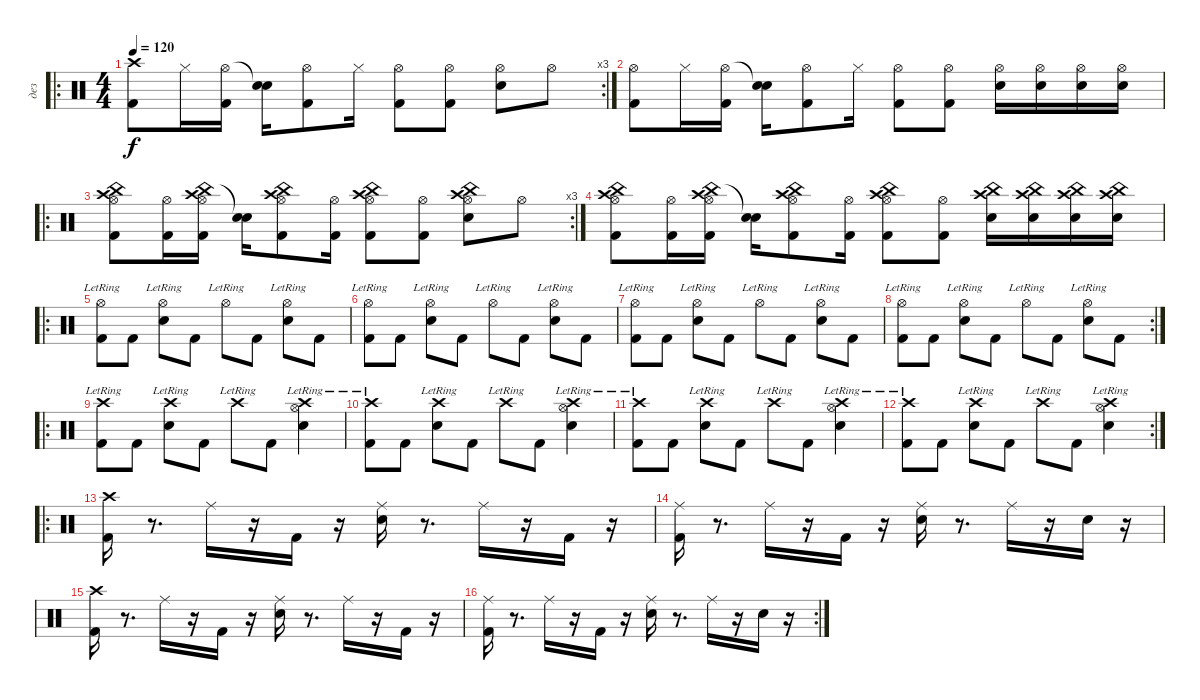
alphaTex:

\track ("дез" "дез") {instrument percussion}
\staff {score}
\articulation defaults
\ro
\rc 3
\ts (4 4)
\tempo 120
\clef neutral
\ks c
("Crash high (hit)" "Kick (hit) 2").8{dy f} "Hi-Hat (closed)".16 ("Hi-Hat (open)" "Kick (hit) 2").16 ("Snare (hit)"{t} "Snare (hit) 2").16 ("Hi-Hat (open)" "Kick (hit) 2").8 "Hi-Hat (closed)".16 ("Hi-Hat (open)" "Kick (hit) 2").8 ("Hi-Hat (open)" "Kick (hit) 2").8 ("Hi-Hat (open)" "Snare (hit) 2").8 "Hi-Hat (open)".8 |
("Hi-Hat (open)" "Kick (hit) 2").8 "Hi-Hat (closed)".16 ("Hi-Hat (open)" "Kick (hit) 2").16 ("Snare (hit)"{t} "Snare (hit) 2").16 ("Hi-Hat (open)" "Kick (hit) 2").8 "Hi-Hat (closed)".16 ("Hi-Hat (open)" "Kick (hit) 2").8 ("Hi-Hat (open)" "Kick (hit) 2").8 ("Hi-Hat (open)" "Snare (hit) 2").16 ("Hi-Hat (open)" "Snare (hit) 2").16 ("Hi-Hat (open)" "Snare (hit) 2").16 ("Hi-Hat (open)" "Snare (hit) 2").16 |
\ro
\rc 3
("China (hit)" "Hi-Hat (open)" "Crash high (hit)" "Kick (hit) 2").8 ("Hi-Hat (open)" "Kick (hit) 2").16 ("China (hit)" "Hi-Hat (open)" "Crash high (hit)" "Kick (hit) 2").16 ("Snare (hit)"{t} "Snare (hit) 2").16 ("China (hit)" "Hi-Hat (open)" "Crash high (hit)" "Kick (hit) 2").8 ("Hi-Hat (open)" "Kick (hit) 2").16 ("China (hit)" "Hi-Hat (open)" "Crash high (hit)" "Kick (hit) 2").8 ("Hi-Hat (open)" "Kick (hit) 2").8 ("China (hit)" "Hi-Hat (open)" "Crash high (hit)" "Snare (hit) 2").8 "Hi-Hat (open)".8 |
("China (hit)" "Hi-Hat (open)" "Crash high (hit)" "Kick (hit) 2").8 ("Hi-Hat (open)" "Kick (hit) 2").16 ("China (hit)" "Hi-Hat (open)" "Crash high (hit)" "Kick (hit) 2").16 ("Snare (hit)"{t} "Snare (hit) 2").16 ("China (hit)" "Hi-Hat (open)" "Crash high (hit)" "Kick (hit) 2").8 ("Hi-Hat (open)" "Kick (hit) 2").16 ("China (hit)" "Hi-Hat (open)" "Crash high (hit)" "Kick (hit) 2").8 ("Hi-Hat (open)" "Kick (hit) 2").8 ("China (hit)" "Crash high (hit)" "Snare (hit) 2").16 ("China (hit)" "Crash high (hit)" "Snare (hit) 2").16 ("China (hit)" "Crash high (hit)" "Snare (hit) 2").16 ("China (hit)" "Crash high (hit)" "Snare (hit) 2").16 |
\ro
("Hi-Hat (open)"{lr} "Kick (hit) 2").8 "Kick (hit) 2".8 ("Hi-Hat (open)"{lr} "Snare (hit) 2").8 "Kick (hit) 2".8 "Hi-Hat (open)"{lr}.8 "Kick (hit) 2".8 ("Hi-Hat (open)"{lr} "Snare (hit) 2").8 "Kick (hit) 2".8 |
("Hi-Hat (open)"{lr} "Kick (hit) 2").8 "Kick (hit) 2".8 ("Hi-Hat (open)"{lr} "Snare (hit) 2").8 "Kick (hit) 2".8 "Hi-Hat (open)"{lr}.8 "Kick (hit) 2".8 ("Hi-Hat (open)"{lr} "Snare (hit) 2").8 "Kick (hit) 2".8 |
("Hi-Hat (open)"{lr} "Kick (hit) 2").8 "Kick (hit) 2".8 ("Hi-Hat (open)"{lr} "Snare (hit) 2").8 "Kick (hit) 2".8 "Hi-Hat (open)"{lr}.8 "Kick (hit) 2".8 ("Hi-Hat (open)"{lr} "Snare (hit) 2").8 "Kick (hit) 2".8 |
\rc 2
("Hi-Hat (open)"{lr} "Kick (hit) 2").8 "Kick (hit) 2".8 ("Hi-Hat (open)"{lr} "Snare (hit) 2").8 "Kick (hit) 2".8 "Hi-Hat (open)"{lr}.8 "Kick (hit) 2".8 ("Hi-Hat (open)"{lr} "Snare (hit) 2").8 "Kick (hit) 2".8 |
\ro
("Crash high (hit)"{lr} "Kick (hit) 2").8 "Kick (hit) 2".8 ("Crash high (hit)"{lr} "Snare (hit) 2").8 "Kick (hit) 2".8 "Crash high (hit)"{lr}.8 "Kick (hit) 2".8 ("Crash high (hit)"{lr} "Hi-Hat (open)"{lr} "Snare (hit) 2").4 |
("Crash high (hit)"{lr} "Kick (hit) 2").8 "Kick (hit) 2".8 ("Crash high (hit)"{lr} "Snare (hit) 2").8 "Kick (hit) 2".8 "Crash high (hit)"{lr}.8 "Kick (hit) 2".8 ("Crash high (hit)"{lr} "Hi-Hat (open)"{lr} "Snare (hit) 2").4 |
("Crash high (hit)"{lr} "Kick (hit) 2").8 "Kick (hit) 2".8 ("Crash high (hit)"{lr} "Snare (hit) 2").8 "Kick (hit) 2".8 "Crash high (hit)"{lr}.8 "Kick (hit) 2".8 ("Crash high (hit)"{lr} "Hi-Hat (open)"{lr} "Snare (hit) 2").4 |
\rc 2
("Crash high (hit)"{lr} "Kick (hit) 2").8 "Kick (hit) 2".8 ("Crash high (hit)"{lr} "Snare (hit) 2").8 "Kick (hit) 2".8 "Crash high (hit)"{lr}.8 "Kick (hit) 2".8 ("Crash high (hit)"{lr} "Hi-Hat (open)"{lr} "Snare (hit) 2").4 |
\ro
("Kick (hit) 2" "Crash high (hit)").16 r.8{d} "Ride (middle)".16 r.16 "Kick (hit) 2".16 r.16 ("Snare (hit) 2" "Ride (middle)").16 r.8{d} "Ride (middle)".16 r.16 "Kick (hit) 2".16 r.16 |
("Kick (hit) 2" "Ride (middle)").16 r.8{d} "Ride (middle)".16 r.16 "Kick (hit) 2".16 r.16 ("Snare (hit) 2" "Ride (middle)").16 r.8{d} "Ride (middle)".16 r.16 "Snare (hit) 2".16 r.16 |
("Kick (hit) 2" "Crash high (hit)").16 r.8{d} "Ride (middle)".16 r.16 "Kick (hit) 2".16 r.16 ("Snare (hit) 2" "Ride (middle)").16 r.8{d} "Ride (middle)".16 r.16 "Kick (hit) 2".16 r.16 |
\rc 2
("Kick (hit) 2" "Ride (middle)").16 r.8{d} "Ride (middle)".16 r.16 "Kick (hit) 2".16 r.16 ("Snare (hit) 2" "Ride (middle)").16 r.8{d} "Ride (middle)".16 r.16 "Snare (hit) 2".16 r.16
